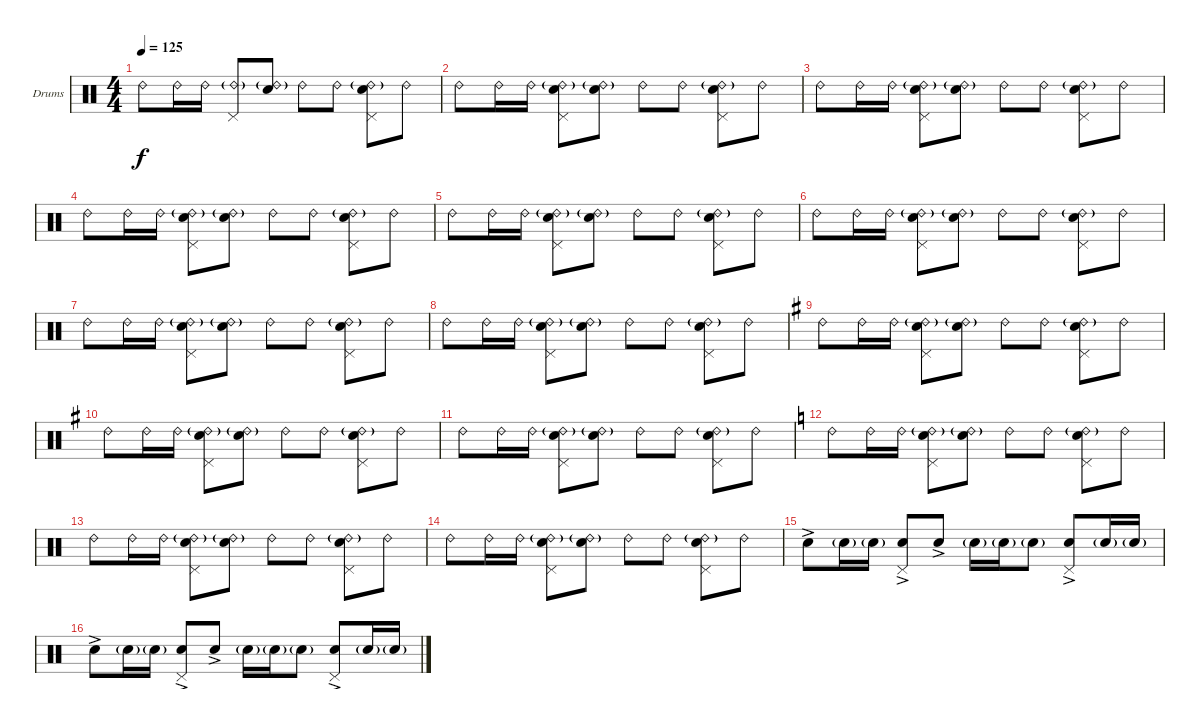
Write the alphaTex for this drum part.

\defaultSystemsLayout 4
\bracketExtendMode groupsimilarinstruments
\firstSystemTrackNameOrientation horizontal
\otherSystemsTrackNameOrientation horizontal
\track ("Drums" "Drums") {instrument percussion}
\staff {score}
\articulation defaults
\ts (4 4)
\tempo 125
\clef neutral
\scale
0.333333
\ks c "Ride (bell) 2".8{dy f} "Ride (bell) 2".16 "Ride (bell) 2".16
("Ride (bell) 2"{g} "Pedal Hi-Hat (hit)").8 ("Snare (hit) 2" "Ride (bell) 2"{g}).8 "Ride (bell) 2".8 "Ride (bell) 2".8 ("Ride (bell) 2"{g} "Snare (hit) 2" "Pedal Hi-Hat (hit)").8 "Ride (bell) 2".8 |
\scale
0.333333 "Ride (bell) 2".8 "Ride (bell) 2".16 "Ride (bell) 2".16 ("Ride (bell) 2"{g} "Pedal Hi-Hat (hit)" "Snare (hit) 2").8 ("Snare (hit) 2" "Ride (bell) 2"{g}).8 "Ride (bell) 2".8 "Ride (bell) 2".8 ("Ride (bell) 2"{g} "Snare (hit) 2" "Pedal Hi-Hat (hit)").8 "Ride (bell) 2".8 |
\scale
0.333333 "Ride (bell) 2".8 "Ride (bell) 2".16 "Ride (bell) 2".16 ("Ride (bell) 2"{g} "Pedal Hi-Hat (hit)" "Snare (hit) 2").8 ("Snare (hit) 2" "Ride (bell) 2"{g}).8 "Ride (bell) 2".8 "Ride (bell) 2".8 ("Ride (bell) 2"{g} "Snare (hit) 2" "Pedal Hi-Hat (hit)").8 "Ride (bell) 2".8 |
\scale
0.333333 "Ride (bell) 2".8 "Ride (bell) 2".16 "Ride (bell) 2".16 ("Ride (bell) 2"{g} "Snare (hit) 2" "Pedal Hi-Hat (hit)").8 ("Snare (hit) 2" "Ride (bell) 2"{g}).8 "Ride (bell) 2".8 "Ride (bell) 2".8 ("Ride (bell) 2"{g} "Snare (hit) 2" "Pedal Hi-Hat (hit)").8 "Ride (bell) 2".8 |
\scale
0.333333 "Ride (bell) 2".8 "Ride (bell) 2".16 "Ride (bell) 2".16 ("Ride (bell) 2"{g} "Snare (hit) 2" "Pedal Hi-Hat (hit)").8 ("Snare (hit) 2" "Ride (bell) 2"{g}).8 "Ride (bell) 2".8 "Ride (bell) 2".8 ("Ride (bell) 2"{g} "Snare (hit) 2" "Pedal Hi-Hat (hit)").8 "Ride (bell) 2".8 |
\scale
0.333333 "Ride (bell) 2".8 "Ride (bell) 2".16 "Ride (bell) 2".16 ("Ride (bell) 2"{g} "Snare (hit) 2" "Pedal Hi-Hat (hit)").8 ("Snare (hit) 2" "Ride (bell) 2"{g}).8 "Ride (bell) 2".8 "Ride (bell) 2".8 ("Ride (bell) 2"{g} "Snare (hit) 2" "Pedal Hi-Hat (hit)").8 "Ride (bell) 2".8 |
\scale
0.333333 "Ride (bell) 2".8 "Ride (bell) 2".16 "Ride (bell) 2".16 ("Ride (bell) 2"{g} "Snare (hit) 2" "Pedal Hi-Hat (hit)").8 ("Snare (hit) 2" "Ride (bell) 2"{g}).8 "Ride (bell) 2".8 "Ride (bell) 2".8 ("Ride (bell) 2"{g} "Snare (hit) 2" "Pedal Hi-Hat (hit)").8 "Ride (bell) 2".8 |
\scale
0.333333 "Ride (bell) 2".8 "Ride (bell) 2".16 "Ride (bell) 2".16 ("Ride (bell) 2"{g} "Snare (hit) 2" "Pedal Hi-Hat (hit)").8 ("Snare (hit) 2" "Ride (bell) 2"{g}).8 "Ride (bell) 2".8 "Ride (bell) 2".8 ("Ride (bell) 2"{g} "Snare (hit) 2" "Pedal Hi-Hat (hit)").8 "Ride (bell) 2".8 |
\scale
0.333333
\ks g "Ride (bell) 2".8 "Ride (bell) 2".16 "Ride (bell) 2".16
("Ride (bell) 2"{g} "Snare (hit) 2" "Pedal Hi-Hat (hit)").8 ("Snare (hit) 2" "Ride (bell) 2"{g}).8 "Ride (bell) 2".8 "Ride (bell) 2".8 ("Ride (bell) 2"{g} "Snare (hit) 2" "Pedal Hi-Hat (hit)").8 "Ride (bell) 2".8 |
\scale
0.333333 "Ride (bell) 2".8 "Ride (bell) 2".16 "Ride (bell) 2".16 ("Ride (bell) 2"{g} "Snare (hit) 2" "Pedal Hi-Hat (hit)").8 ("Snare (hit) 2" "Ride (bell) 2"{g}).8 "Ride (bell) 2".8 "Ride (bell) 2".8 ("Ride (bell) 2"{g} "Snare (hit) 2" "Pedal Hi-Hat (hit)").8 "Ride (bell) 2".8 |
\scale
0.333333 "Ride (bell) 2".8 "Ride (bell) 2".16 "Ride (bell) 2".16 ("Ride (bell) 2"{g} "Snare (hit) 2" "Pedal Hi-Hat (hit)").8 ("Snare (hit) 2" "Ride (bell) 2"{g}).8 "Ride (bell) 2".8 "Ride (bell) 2".8 ("Ride (bell) 2"{g} "Snare (hit) 2" "Pedal Hi-Hat (hit)").8 "Ride (bell) 2".8 |
\scale
0.333333
\ks c "Ride (bell) 2".8 "Ride (bell) 2".16 "Ride (bell) 2".16
("Ride (bell) 2"{g} "Snare (hit) 2" "Pedal Hi-Hat (hit)").8 ("Snare (hit) 2" "Ride (bell) 2"{g}).8 "Ride (bell) 2".8 "Ride (bell) 2".8 ("Ride (bell) 2"{g} "Snare (hit) 2" "Pedal Hi-Hat (hit)").8 "Ride (bell) 2".8 |
\scale
0.333333 "Ride (bell) 2".8 "Ride (bell) 2".16 "Ride (bell) 2".16 ("Ride (bell) 2"{g} "Snare (hit) 2" "Pedal Hi-Hat (hit)").8 ("Snare (hit) 2" "Ride (bell) 2"{g}).8 "Ride (bell) 2".8 "Ride (bell) 2".8 ("Ride (bell) 2"{g} "Snare (hit) 2" "Pedal Hi-Hat (hit)").8 "Ride (bell) 2".8 |
\scale
0.333333 "Ride (bell) 2".8 "Ride (bell) 2".16 "Ride (bell) 2".16 ("Ride (bell) 2"{g} "Snare (hit) 2" "Pedal Hi-Hat (hit)").8 ("Snare (hit) 2" "Ride (bell) 2"{g}).8 "Ride (bell) 2".8 "Ride (bell) 2".8 ("Ride (bell) 2"{g} "Snare (hit) 2" "Pedal Hi-Hat (hit)").8 "Ride (bell) 2".8 |
\scale
0.333333 "Snare (hit) 2"{ac}.8 "Snare (hit) 2"{g}.16 "Snare (hit) 2"{g}.16 ("Snare (hit) 2"{ac} "Pedal Hi-Hat (hit)").8 "Snare (hit) 2"{ac}.8 "Snare (hit) 2"{g}.16 "Snare (hit) 2"{g}.16 "Snare (hit) 2"{g}.8 ("Snare (hit) 2"{ac} "Pedal Hi-Hat (hit)").8 "Snare (hit) 2"{g}.16 "Snare (hit) 2"{g}.16 |
\scale
0.333333 "Snare (hit) 2"{ac}.8 "Snare (hit) 2"{g}.16 "Snare (hit) 2"{g}.16 ("Snare (hit) 2"{ac} "Pedal Hi-Hat (hit)").8 "Snare (hit) 2"{ac}.8 "Snare (hit) 2"{g}.16 "Snare (hit) 2"{g}.16 "Snare (hit) 2"{g}.8 ("Snare (hit) 2"{ac} "Pedal Hi-Hat (hit)").8 "Snare (hit) 2"{g}.16 "Snare (hit) 2"{g}.16
